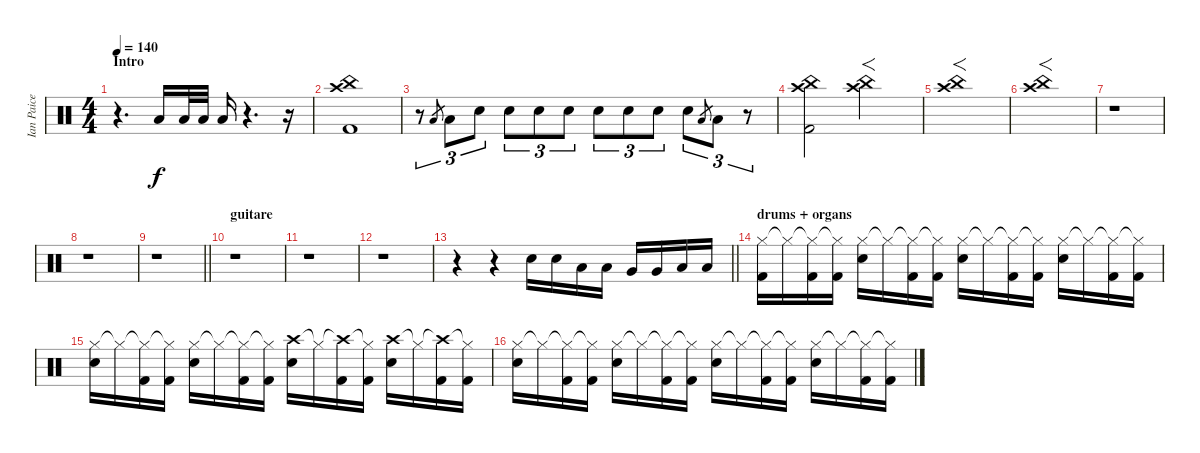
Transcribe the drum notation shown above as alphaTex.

\track ("Ian Paice" "Ian Paice") {instrument percussion}
\staff {score}
\articulation defaults
\ts (4 4)
\section ("" "Intro")
\tempo 140
\clef neutral
\ks c
r.4{d dy f} "Low Tom (hit)".16 "Low Tom (hit)".32 "Low Tom (hit)".32 "Low Floor Tom (hit)".16 r.4{d} r.16 |
("China (hit)" "Crash high (hit)" "Kick (hit) 2").1 |
r.8{tu (3 2)} "Low Floor Tom (hit)".8{gr} "Low Floor Tom (hit)".8{tu (3 2)} "Snare (hit) 2".8{tu (3 2)} "Snare (hit) 2".8{tu (3 2)} "Snare (hit) 2".8{tu (3 2)} "Snare (hit) 2".8{tu (3 2)} "Snare (hit) 2".8{tu (3 2)} "Snare (hit) 2".8{tu (3 2)} "Snare (hit) 2".8{tu (3 2)} "Snare (hit) 2".8{tu (3 2)} "Low Tom (hit)".8{gr} "Low Tom (hit)".8{tu (3 2)} r.8{tu (3 2)} |
("China (hit)" "Crash high (hit)" "Kick (hit) 2").2 ("China (hit)" "Crash high (hit)").2{f} |
("China (hit)" "Crash high (hit)").1{f} |
("China (hit)" "Crash high (hit)").1{f} |
r.1 |
r.1 |
\barLineRight lightlight
r.1 |
\section ("" "guitare")
r.1 |
r.1 |
r.1 |
\barLineRight lightlight
r.4 r.4 "Snare (hit) 2".16 "Snare (hit) 2".16 "Low Tom (hit)".16 "Low Tom (hit)".16 "Very Low Tom (hit)".16 "Very Low Tom (hit)".16 "Low Floor Tom (hit)".16 "Low Floor Tom (hit)".16 |
\section ("" "drums + organs")
("Hi-Hat (closed)" "Kick (hit) 2").16 "Hi-Hat (closed)"{t}.16 ("Hi-Hat (closed)"{t} "Kick (hit) 2").16 ("Hi-Hat (closed)"{t} "Kick (hit) 2").16 ("Hi-Hat (closed)" "Snare (hit) 2").16 "Hi-Hat (closed)"{t}.16 ("Hi-Hat (closed)"{t} "Kick (hit) 2").16 ("Hi-Hat (closed)"{t} "Kick (hit) 2").16 ("Hi-Hat (closed)" "Snare (hit) 2").16 "Hi-Hat (closed)"{t}.16 ("Hi-Hat (closed)"{t} "Kick (hit) 2").16 ("Hi-Hat (closed)"{t} "Kick (hit) 2").16 ("Hi-Hat (closed)" "Snare (hit) 2").16 "Hi-Hat (closed)"{t}.16 ("Hi-Hat (closed)"{t} "Kick (hit) 2").16 ("Hi-Hat (closed)"{t} "Kick (hit) 2").16 |
("Hi-Hat (closed)" "Snare (hit) 2").16 "Hi-Hat (closed)"{t}.16 ("Hi-Hat (closed)"{t} "Kick (hit) 2").16 ("Hi-Hat (closed)"{t} "Kick (hit) 2").16 ("Hi-Hat (closed)" "Snare (hit) 2").16 "Hi-Hat (closed)"{t}.16 ("Hi-Hat (closed)"{t} "Kick (hit) 2").16 ("Hi-Hat (closed)"{t} "Kick (hit) 2").16 ("Crash high (hit)" "Snare (hit) 2").16 "Hi-Hat (closed)"{t}.16 ("Crash high (hit)"{t} "Kick (hit) 2").16 ("Hi-Hat (closed)"{t} "Kick (hit) 2").16 ("Crash high (hit)" "Snare (hit) 2").16 "Hi-Hat (closed)"{t}.16 ("Crash high (hit)"{t} "Kick (hit) 2").16 ("Hi-Hat (closed)"{t} "Kick (hit) 2").16 |
("Hi-Hat (closed)" "Snare (hit) 2").16 "Hi-Hat (closed)"{t}.16 ("Hi-Hat (closed)"{t} "Kick (hit) 2").16 ("Hi-Hat (closed)"{t} "Kick (hit) 2").16 ("Hi-Hat (closed)" "Snare (hit) 2").16 "Hi-Hat (closed)"{t}.16 ("Hi-Hat (closed)"{t} "Kick (hit) 2").16 ("Hi-Hat (closed)"{t} "Kick (hit) 2").16 ("Hi-Hat (closed)" "Snare (hit) 2").16 "Hi-Hat (closed)"{t}.16 ("Hi-Hat (closed)"{t} "Kick (hit) 2").16 ("Hi-Hat (closed)"{t} "Kick (hit) 2").16 ("Hi-Hat (closed)" "Snare (hit) 2").16 "Hi-Hat (closed)"{t}.16 ("Hi-Hat (closed)"{t} "Kick (hit) 2").16 ("Hi-Hat (closed)"{t} "Kick (hit) 2").16
